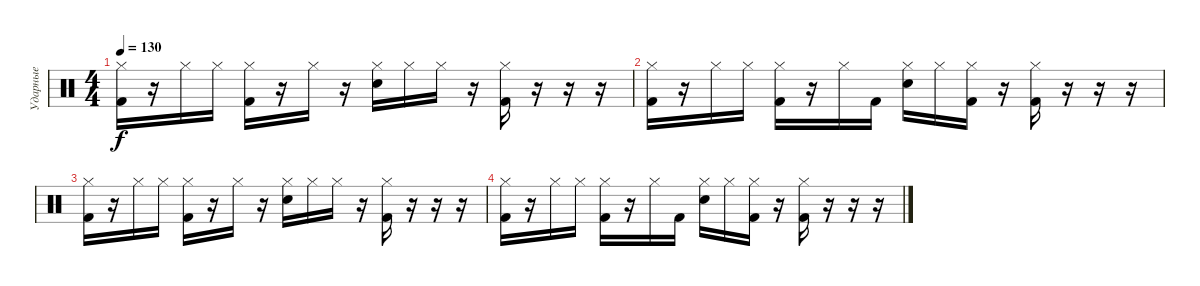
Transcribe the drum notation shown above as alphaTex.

\track ("Ударные" "Ударные") {instrument percussion}
\staff {score}
\articulation defaults
\ts (4 4)
\tempo 130
\clef neutral
\ks c
("Kick (hit) 2" "Hi-Hat (closed)").16{dy f volume 16} r.16 "Hi-Hat (closed)".16 "Hi-Hat (closed)".16 ("Kick (hit) 2" "Hi-Hat (closed)").16 r.16 "Hi-Hat (closed)".16 r.16 ("Snare (hit) 2" "Hi-Hat (closed)").16 "Hi-Hat (closed)".16 "Hi-Hat (closed)".16 r.16 ("Kick (hit) 2" "Hi-Hat (closed)").16 r.16 r.16 r.16 |
("Kick (hit) 2" "Hi-Hat (closed)").16 r.16 "Hi-Hat (closed)".16 "Hi-Hat (closed)".16 ("Kick (hit) 2" "Hi-Hat (closed)").16 r.16 "Hi-Hat (closed)".16 "Kick (hit) 2".16 ("Snare (hit) 2" "Hi-Hat (closed)").16 "Hi-Hat (closed)".16 ("Kick (hit) 2" "Hi-Hat (closed)").16 r.16 ("Kick (hit) 2" "Hi-Hat (closed)").16 r.16 r.16 r.16 |
("Hi-Hat (closed)" "Kick (hit) 2").16 r.16 "Hi-Hat (closed)".16 "Hi-Hat (closed)".16 ("Kick (hit) 2" "Hi-Hat (closed)").16 r.16 "Hi-Hat (closed)".16 r.16 ("Snare (hit) 2" "Hi-Hat (closed)").16 "Hi-Hat (closed)".16 "Hi-Hat (closed)".16 r.16 ("Kick (hit) 2" "Hi-Hat (closed)").16 r.16 r.16 r.16 |
("Kick (hit) 2" "Hi-Hat (closed)").16 r.16 "Hi-Hat (closed)".16 "Hi-Hat (closed)".16 ("Kick (hit) 2" "Hi-Hat (closed)").16 r.16 "Hi-Hat (closed)".16 "Kick (hit) 2".16 ("Snare (hit) 2" "Hi-Hat (closed)").16 "Hi-Hat (closed)".16 ("Kick (hit) 2" "Hi-Hat (closed)").16 r.16 ("Kick (hit) 2" "Hi-Hat (closed)").16 r.16 r.16 r.16
